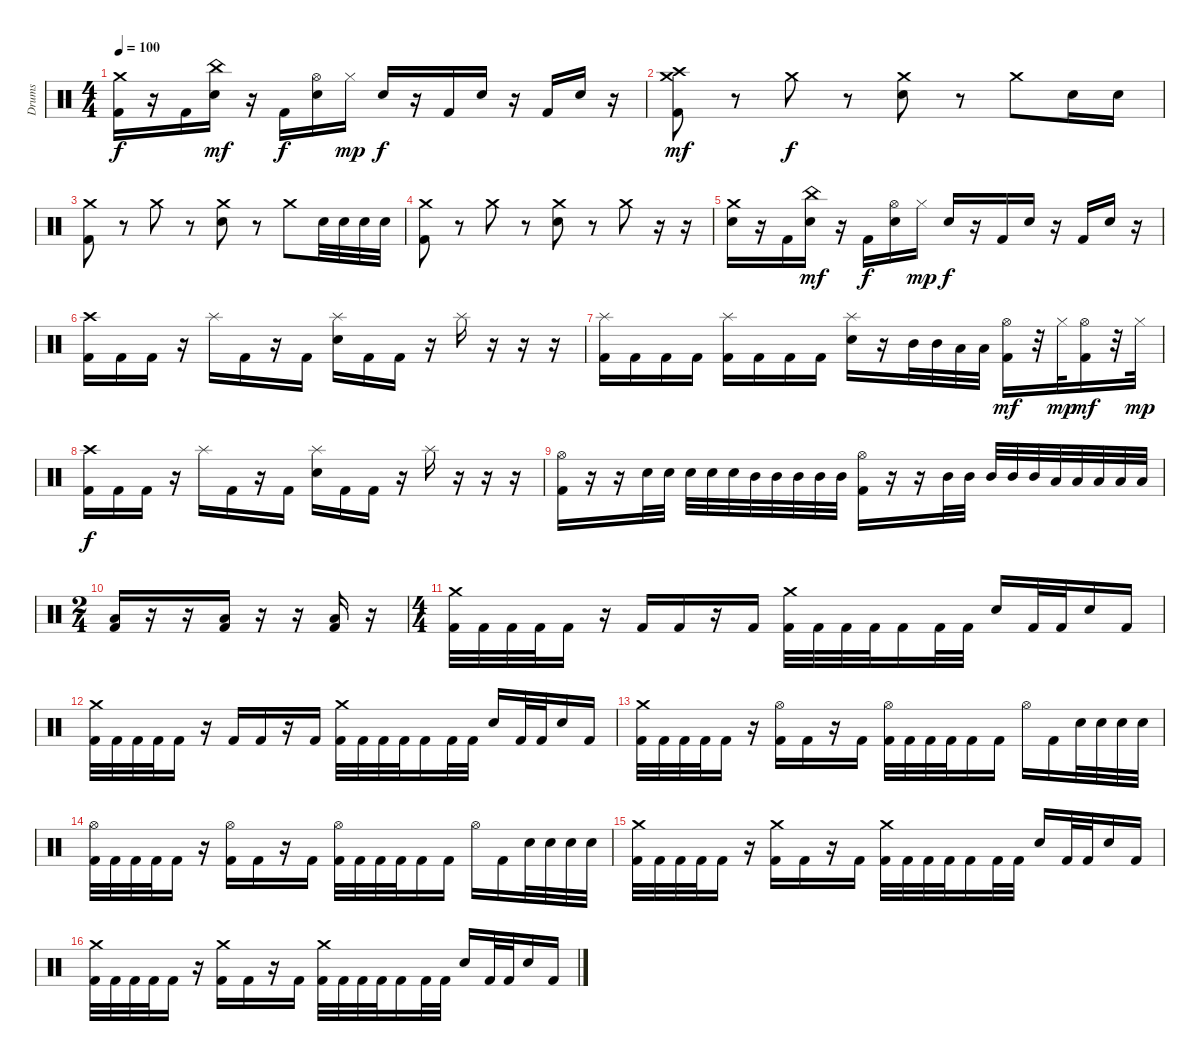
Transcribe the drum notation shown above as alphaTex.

\track ("Drums" "Drums") {instrument percussion}
\staff {score}
\articulation defaults
\ts (4 4)
\tempo 100
\clef neutral
\ks c
("Kick (hit) 2" "Crash medium (hit)").16{dy f} r.16 "Kick (hit) 2".16 ("Electric Snare (hit)" "China (hit)").16{dy mf} r.16 "Kick (hit) 2".16{dy f} ("Electric Snare (hit)" "Hi-Hat (open)").16 "Hi-Hat (closed)".16{dy mp} "Electric Snare (hit)".16{dy f} r.16 "Kick (hit) 2".16 "Electric Snare (hit)".16 r.16 "Kick (hit) 2".16 "Electric Snare (hit)".16 r.16 |
("Kick (hit) 2" "Crash high (hit)" "Crash medium (hit)").8{dy mf} r.8 "Crash medium (hit)".8{dy f} r.8 ("Electric Snare (hit)" "Crash medium (hit)").8 r.8 "Crash medium (hit)".8 "Electric Snare (hit)".16 "Electric Snare (hit)".16 |
("Kick (hit) 2" "Crash medium (hit)").8 r.8 "Crash medium (hit)".8 r.8 ("Electric Snare (hit)" "Crash medium (hit)").8 r.8 "Crash medium (hit)".8 "Electric Snare (hit)".32 "Electric Snare (hit)".32 "Electric Snare (hit)".32 "Electric Snare (hit)".32 |
("Kick (hit) 2" "Crash medium (hit)").8 r.8 "Crash medium (hit)".8 r.8 ("Electric Snare (hit)" "Crash medium (hit)").8 r.8 "Crash medium (hit)".8 r.16 r.16 |
("Electric Snare (hit)" "Crash medium (hit)").16 r.16 "Kick (hit) 2".16 ("Electric Snare (hit)" "China (hit)").16{dy mf} r.16 "Kick (hit) 2".16{dy f} ("Electric Snare (hit)" "Hi-Hat (open)").16 "Hi-Hat (closed)".16{dy mp} "Electric Snare (hit)".16{dy f} r.16 "Kick (hit) 2".16 "Electric Snare (hit)".16 r.16 "Kick (hit) 2".16 "Electric Snare (hit)".16 r.16 |
("Kick (hit) 2" "Crash high (hit)").16 "Kick (hit) 2".16 "Kick (hit) 2".16 r.16 "Splash (hit)".16 "Kick (hit) 2".16 r.16 "Kick (hit) 2".16 ("Electric Snare (hit)" "Splash (hit)").16 "Kick (hit) 2".16 "Kick (hit) 2".16 r.16 "Splash (hit)".16 r.16 r.16 r.16 |
("Kick (hit) 2" "Splash (hit)").16 "Kick (hit) 2".16 "Kick (hit) 2".16 "Kick (hit) 2".16 ("Kick (hit) 2" "Splash (hit)").16 "Kick (hit) 2".16 "Kick (hit) 2".16 "Kick (hit) 2".16 ("Electric Snare (hit)" "Splash (hit)").16 r.16 "Mid Tom (hit)".32 "Mid Tom (hit)".32 "Low Tom (hit)".32 "Low Tom (hit)".32 ("Hi-Hat (open)" "Kick (hit) 2").16{dy mf} r.32 "Hi-Hat (closed)".32{dy mp} ("Hi-Hat (open)" "Kick (hit) 2").16{dy mf} r.32 "Hi-Hat (closed)".32{dy mp} |
("Kick (hit) 2" "Crash high (hit)").16{dy f} "Kick (hit) 2".16 "Kick (hit) 2".16 r.16 "Splash (hit)".16 "Kick (hit) 2".16 r.16 "Kick (hit) 2".16 ("Electric Snare (hit)" "Splash (hit)").16 "Kick (hit) 2".16 "Kick (hit) 2".16 r.16 "Splash (hit)".16 r.16 r.16 r.16 |
("Kick (hit) 2" "Hi-Hat (open)").16 r.16 r.16 "Electric Snare (hit)".32 "Electric Snare (hit)".32 "Electric Snare (hit)".32 "Electric Snare (hit)".32 "Electric Snare (hit)".32 "Mid Tom (hit)".32 "Mid Tom (hit)".32 "Mid Tom (hit)".32 "Mid Tom (hit)".32 "Mid Tom (hit)".32 ("Kick (hit) 2" "Hi-Hat (open)").16 r.16 r.16 "Mid Tom (hit)".32 "Mid Tom (hit)".32 "Mid Tom (hit)".32 "Mid Tom (hit)".32 "Mid Tom (hit)".32 "Low Tom (hit)".32 "Low Tom (hit)".32 "Low Tom (hit)".32 "Low Tom (hit)".32 "Low Tom (hit)".32 |
\ts (2 4)
("Kick (hit) 2" "Low Tom (hit)").16 r.16 r.16 ("Kick (hit) 2" "Low Tom (hit)").16 r.16 r.16 ("Kick (hit) 2" "Low Tom (hit)").16 r.16 |
\ts (4 4)
("Kick (hit) 2" "Crash medium (hit)").32 "Kick (hit) 2".32 "Kick (hit) 2".32 "Kick (hit) 2".32 "Kick (hit) 2".16 r.16 "Kick (hit) 2".16 "Kick (hit) 2".16 r.16 "Kick (hit) 2".16 ("Kick (hit) 2" "Crash medium (hit)").32 "Kick (hit) 2".32 "Kick (hit) 2".32 "Kick (hit) 2".32 "Kick (hit) 2".16 "Kick (hit) 2".32 "Kick (hit) 2".32 "Electric Snare (hit)".16 "Kick (hit) 2".32 "Kick (hit) 2".32 "Electric Snare (hit)".16 "Kick (hit) 2".16 |
("Kick (hit) 2" "Crash medium (hit)").32 "Kick (hit) 2".32 "Kick (hit) 2".32 "Kick (hit) 2".32 "Kick (hit) 2".16 r.16 "Kick (hit) 2".16 "Kick (hit) 2".16 r.16 "Kick (hit) 2".16 ("Kick (hit) 2" "Crash medium (hit)").32 "Kick (hit) 2".32 "Kick (hit) 2".32 "Kick (hit) 2".32 "Kick (hit) 2".16 "Kick (hit) 2".32 "Kick (hit) 2".32 "Electric Snare (hit)".16 "Kick (hit) 2".32 "Kick (hit) 2".32 "Electric Snare (hit)".16 "Kick (hit) 2".16 |
("Kick (hit) 2" "Crash medium (hit)").32 "Kick (hit) 2".32 "Kick (hit) 2".32 "Kick (hit) 2".32 "Kick (hit) 2".16 r.16 ("Kick (hit) 2" "Hi-Hat (open)").16 "Kick (hit) 2".16 r.16 "Kick (hit) 2".16 ("Kick (hit) 2" "Hi-Hat (open)").32 "Kick (hit) 2".32 "Kick (hit) 2".32 "Kick (hit) 2".32 "Kick (hit) 2".16 "Kick (hit) 2".16 "Hi-Hat (open)".16 "Kick (hit) 2".16 "Electric Snare (hit)".32 "Electric Snare (hit)".32 "Electric Snare (hit)".32 "Electric Snare (hit)".32 |
("Kick (hit) 2" "Hi-Hat (open)").32 "Kick (hit) 2".32 "Kick (hit) 2".32 "Kick (hit) 2".32 "Kick (hit) 2".16 r.16 ("Kick (hit) 2" "Hi-Hat (open)").16 "Kick (hit) 2".16 r.16 "Kick (hit) 2".16 ("Kick (hit) 2" "Hi-Hat (open)").32 "Kick (hit) 2".32 "Kick (hit) 2".32 "Kick (hit) 2".32 "Kick (hit) 2".16 "Kick (hit) 2".16 "Hi-Hat (open)".16 "Kick (hit) 2".16 "Electric Snare (hit)".32 "Electric Snare (hit)".32 "Electric Snare (hit)".32 "Electric Snare (hit)".32 |
("Kick (hit) 2" "Crash medium (hit)").32 "Kick (hit) 2".32 "Kick (hit) 2".32 "Kick (hit) 2".32 "Kick (hit) 2".16 r.16 ("Kick (hit) 2" "Crash medium (hit)").16 "Kick (hit) 2".16 r.16 "Kick (hit) 2".16 ("Kick (hit) 2" "Crash medium (hit)").32 "Kick (hit) 2".32 "Kick (hit) 2".32 "Kick (hit) 2".32 "Kick (hit) 2".16 "Kick (hit) 2".32 "Kick (hit) 2".32 "Electric Snare (hit)".16 "Kick (hit) 2".32 "Kick (hit) 2".32 "Electric Snare (hit)".16 "Kick (hit) 2".16 |
("Kick (hit) 2" "Crash medium (hit)").32 "Kick (hit) 2".32 "Kick (hit) 2".32 "Kick (hit) 2".32 "Kick (hit) 2".16 r.16 ("Kick (hit) 2" "Crash medium (hit)").16 "Kick (hit) 2".16 r.16 "Kick (hit) 2".16 ("Kick (hit) 2" "Crash medium (hit)").32 "Kick (hit) 2".32 "Kick (hit) 2".32 "Kick (hit) 2".32 "Kick (hit) 2".16 "Kick (hit) 2".32 "Kick (hit) 2".32 "Electric Snare (hit)".16 "Kick (hit) 2".32 "Kick (hit) 2".32 "Electric Snare (hit)".16 "Kick (hit) 2".16
